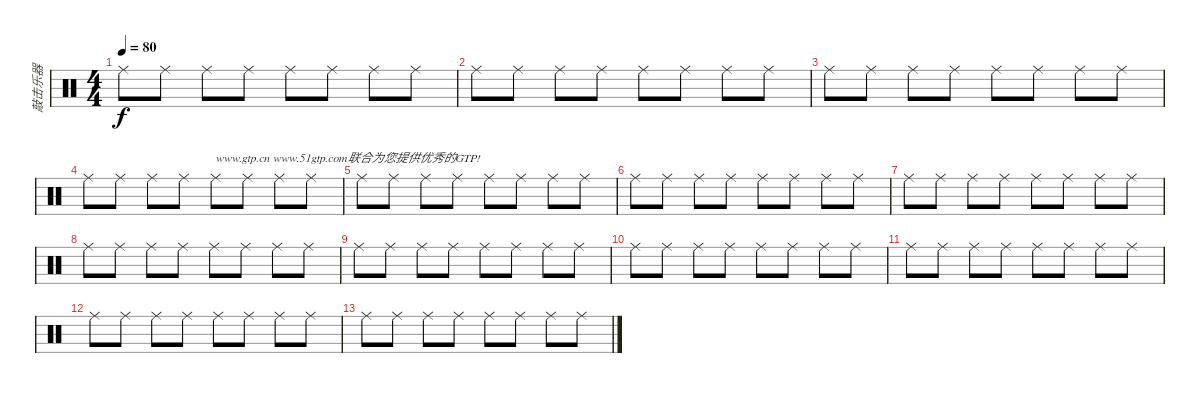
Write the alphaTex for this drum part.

\track ("敲击乐器" "敲击乐器") {instrument percussion}
\staff {score}
\articulation defaults
\ts (4 4)
\tempo 80
\clef neutral
\ks c "Ride (middle)".8{dy f} "Ride (middle)".8 "Ride (middle)".8 "Ride (middle)".8 "Ride (middle)".8 "Ride (middle)".8 "Ride (middle)".8 "Ride (middle)".8
|
"Ride (middle)".8 "Ride (middle)".8 "Ride (middle)".8 "Ride (middle)".8 "Ride (middle)".8 "Ride (middle)".8 "Ride (middle)".8 "Ride (middle)".8 |
"Ride (middle)".8 "Ride (middle)".8 "Ride (middle)".8 "Ride (middle)".8 "Ride (middle)".8 "Ride (middle)".8 "Ride (middle)".8 "Ride (middle)".8 |
"Ride (middle)".8 "Ride (middle)".8 "Ride (middle)".8 "Ride (middle)".8 "Ride (middle)".8{txt "www.gtp.cn www.51gtp.com联合为您提供优秀的GTP!"} "Ride (middle)".8 "Ride (middle)".8 "Ride (middle)".8 |
"Ride (middle)".8 "Ride (middle)".8 "Ride (middle)".8 "Ride (middle)".8 "Ride (middle)".8 "Ride (middle)".8 "Ride (middle)".8 "Ride (middle)".8 |
"Ride (middle)".8 "Ride (middle)".8 "Ride (middle)".8 "Ride (middle)".8 "Ride (middle)".8 "Ride (middle)".8 "Ride (middle)".8 "Ride (middle)".8 |
"Ride (middle)".8 "Ride (middle)".8 "Ride (middle)".8 "Ride (middle)".8 "Ride (middle)".8 "Ride (middle)".8 "Ride (middle)".8 "Ride (middle)".8 |
"Ride (middle)".8 "Ride (middle)".8 "Ride (middle)".8 "Ride (middle)".8 "Ride (middle)".8 "Ride (middle)".8 "Ride (middle)".8 "Ride (middle)".8 |
"Ride (middle)".8 "Ride (middle)".8 "Ride (middle)".8 "Ride (middle)".8 "Ride (middle)".8 "Ride (middle)".8 "Ride (middle)".8 "Ride (middle)".8 |
"Ride (middle)".8 "Ride (middle)".8 "Ride (middle)".8 "Ride (middle)".8 "Ride (middle)".8 "Ride (middle)".8 "Ride (middle)".8 "Ride (middle)".8 |
"Ride (middle)".8 "Ride (middle)".8 "Ride (middle)".8 "Ride (middle)".8 "Ride (middle)".8 "Ride (middle)".8 "Ride (middle)".8 "Ride (middle)".8 |
"Ride (middle)".8 "Ride (middle)".8 "Ride (middle)".8 "Ride (middle)".8 "Ride (middle)".8 "Ride (middle)".8 "Ride (middle)".8 "Ride (middle)".8 |
"Ride (middle)".8 "Ride (middle)".8 "Ride (middle)".8 "Ride (middle)".8 "Ride (middle)".8 "Ride (middle)".8 "Ride (middle)".8 "Ride (middle)".8
